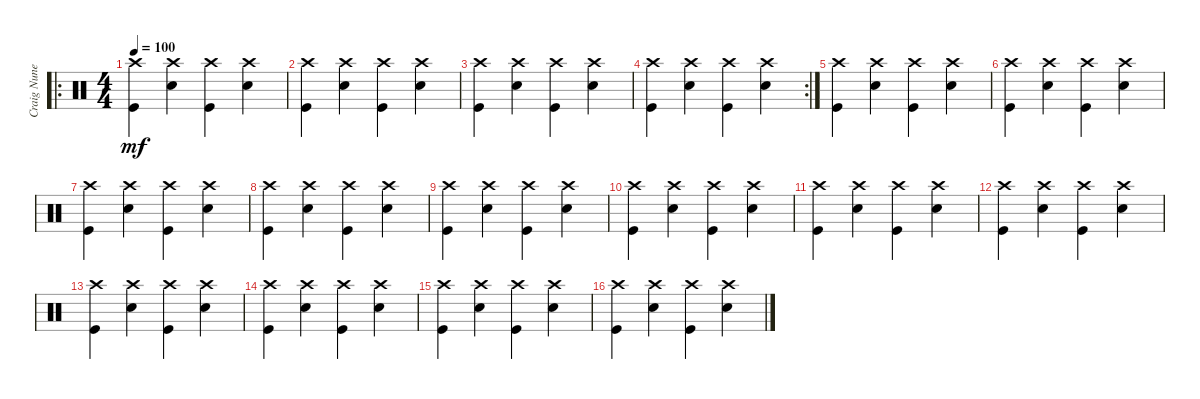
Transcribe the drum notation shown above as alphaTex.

\track ("Craig Nunenmacher (Drums)" "Craig Nune") {instrument percussion}
\staff {score}
\articulation defaults
\ro
\ts (4 4)
\tempo 100
\clef neutral
\ks c
("Crash high (hit)" "Kick (hit)").4{dy mf} ("Crash high (hit)" "Snare (hit) 2").4 ("Crash high (hit)" "Kick (hit)").4 ("Crash high (hit)" "Snare (hit) 2").4 |
("Crash high (hit)" "Kick (hit)").4 ("Crash high (hit)" "Snare (hit) 2").4 ("Crash high (hit)" "Kick (hit)").4 ("Crash high (hit)" "Snare (hit) 2").4 |
("Crash high (hit)" "Kick (hit)").4 ("Crash high (hit)" "Snare (hit) 2").4 ("Crash high (hit)" "Kick (hit)").4 ("Crash high (hit)" "Snare (hit) 2").4 |
\rc 2
("Crash high (hit)" "Kick (hit)").4 ("Crash high (hit)" "Snare (hit) 2").4 ("Crash high (hit)" "Kick (hit)").4 ("Crash high (hit)" "Snare (hit) 2").4 |
("Crash high (hit)" "Kick (hit)").4 ("Crash high (hit)" "Snare (hit) 2").4 ("Crash high (hit)" "Kick (hit)").4 ("Crash high (hit)" "Snare (hit) 2").4 |
("Crash high (hit)" "Kick (hit)").4 ("Crash high (hit)" "Snare (hit) 2").4 ("Crash high (hit)" "Kick (hit)").4 ("Crash high (hit)" "Snare (hit) 2").4 |
("Crash high (hit)" "Kick (hit)").4 ("Crash high (hit)" "Snare (hit) 2").4 ("Crash high (hit)" "Kick (hit)").4 ("Crash high (hit)" "Snare (hit) 2").4 |
("Crash high (hit)" "Kick (hit)").4 ("Crash high (hit)" "Snare (hit) 2").4 ("Crash high (hit)" "Kick (hit)").4 ("Crash high (hit)" "Snare (hit) 2").4 |
("Crash high (hit)" "Kick (hit)").4 ("Crash high (hit)" "Snare (hit) 2").4 ("Crash high (hit)" "Kick (hit)").4 ("Crash high (hit)" "Snare (hit) 2").4 |
("Crash high (hit)" "Kick (hit)").4 ("Crash high (hit)" "Snare (hit) 2").4 ("Crash high (hit)" "Kick (hit)").4 ("Crash high (hit)" "Snare (hit) 2").4 |
("Crash high (hit)" "Kick (hit)").4 ("Crash high (hit)" "Snare (hit) 2").4 ("Crash high (hit)" "Kick (hit)").4 ("Crash high (hit)" "Snare (hit) 2").4 |
("Crash high (hit)" "Kick (hit)").4 ("Crash high (hit)" "Snare (hit) 2").4 ("Crash high (hit)" "Kick (hit)").4 ("Crash high (hit)" "Snare (hit) 2").4 |
("Crash high (hit)" "Kick (hit)").4 ("Crash high (hit)" "Snare (hit) 2").4 ("Crash high (hit)" "Kick (hit)").4 ("Crash high (hit)" "Snare (hit) 2").4 |
("Crash high (hit)" "Kick (hit)").4 ("Crash high (hit)" "Snare (hit) 2").4 ("Crash high (hit)" "Kick (hit)").4 ("Crash high (hit)" "Snare (hit) 2").4 |
("Crash high (hit)" "Kick (hit)").4 ("Crash high (hit)" "Snare (hit) 2").4 ("Crash high (hit)" "Kick (hit)").4 ("Crash high (hit)" "Snare (hit) 2").4 |
("Crash high (hit)" "Kick (hit)").4 ("Crash high (hit)" "Snare (hit) 2").4 ("Crash high (hit)" "Kick (hit)").4 ("Crash high (hit)" "Snare (hit) 2").4
